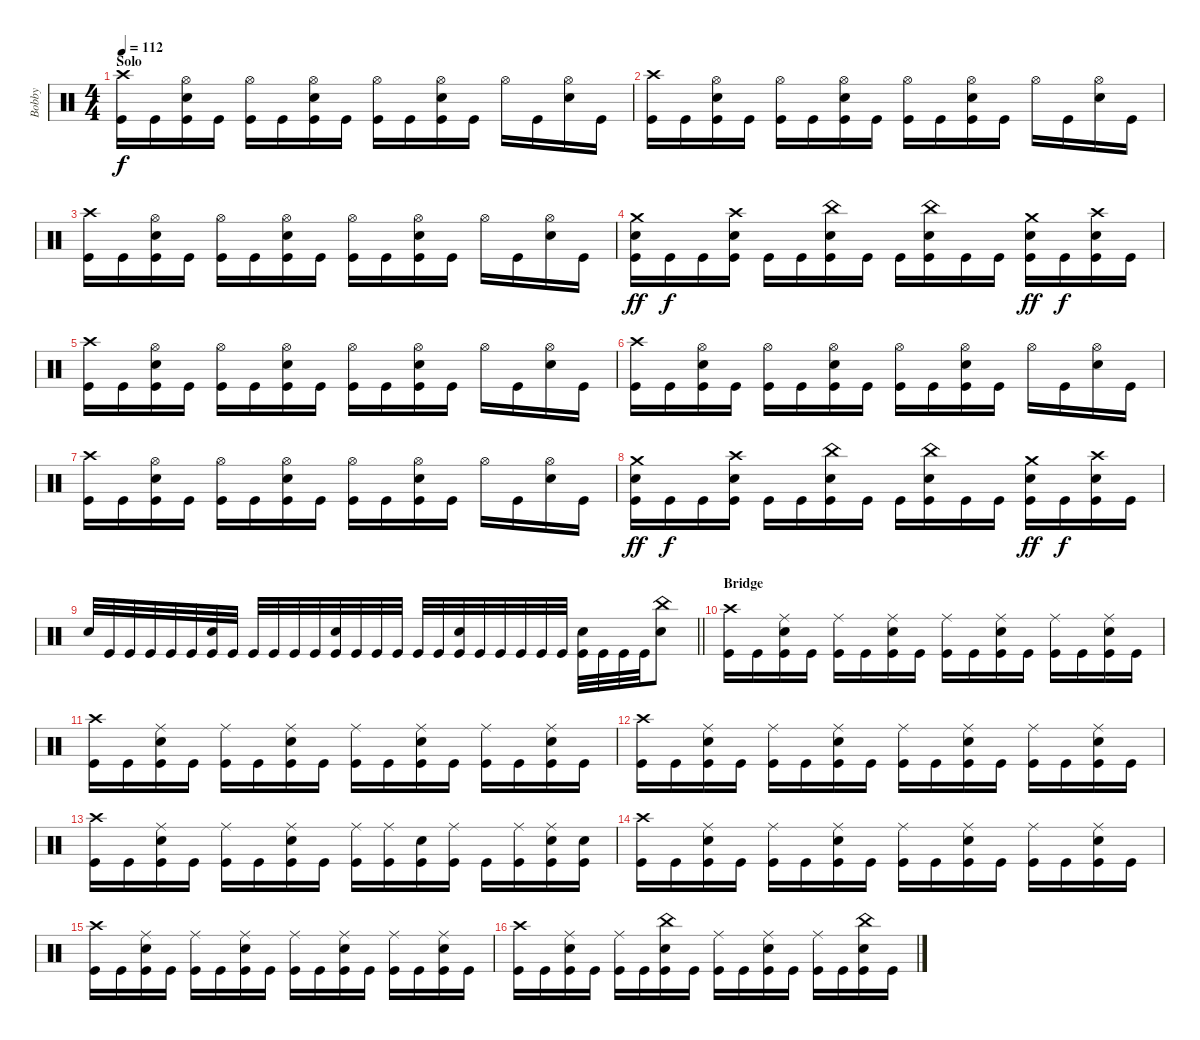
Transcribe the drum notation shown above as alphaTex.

\track ("Bobby" "Bobby") {instrument percussion}
\staff {score}
\articulation defaults
\ts (4 4)
\section ("" "Solo")
\tempo 112
\clef neutral
\ks c
("Crash high (hit)" "Kick (hit)").16{dy f} "Kick (hit)".16 ("Hi-Hat (open)" "Electric Snare (hit)" "Kick (hit)").16 "Kick (hit)".16 ("Hi-Hat (open)" "Kick (hit)").16 "Kick (hit)".16 ("Hi-Hat (open)" "Electric Snare (hit)" "Kick (hit)").16 "Kick (hit)".16 ("Hi-Hat (open)" "Kick (hit)").16 "Kick (hit)".16 ("Hi-Hat (open)" "Electric Snare (hit)" "Kick (hit)").16 "Kick (hit)".16 "Hi-Hat (open)".16 "Kick (hit)".16 ("Hi-Hat (open)" "Electric Snare (hit)").16 "Kick (hit)".16 |
("Crash high (hit)" "Kick (hit)").16 "Kick (hit)".16 ("Hi-Hat (open)" "Electric Snare (hit)" "Kick (hit)").16 "Kick (hit)".16 ("Hi-Hat (open)" "Kick (hit)").16 "Kick (hit)".16 ("Hi-Hat (open)" "Electric Snare (hit)" "Kick (hit)").16 "Kick (hit)".16 ("Hi-Hat (open)" "Kick (hit)").16 "Kick (hit)".16 ("Hi-Hat (open)" "Electric Snare (hit)" "Kick (hit)").16 "Kick (hit)".16 "Hi-Hat (open)".16 "Kick (hit)".16 ("Hi-Hat (open)" "Electric Snare (hit)").16 "Kick (hit)".16 |
("Crash high (hit)" "Kick (hit)").16 "Kick (hit)".16 ("Hi-Hat (open)" "Electric Snare (hit)" "Kick (hit)").16 "Kick (hit)".16 ("Hi-Hat (open)" "Kick (hit)").16 "Kick (hit)".16 ("Hi-Hat (open)" "Electric Snare (hit)" "Kick (hit)").16 "Kick (hit)".16 ("Hi-Hat (open)" "Kick (hit)").16 "Kick (hit)".16 ("Hi-Hat (open)" "Electric Snare (hit)" "Kick (hit)").16 "Kick (hit)".16 "Hi-Hat (open)".16 "Kick (hit)".16 ("Hi-Hat (open)" "Electric Snare (hit)").16 "Kick (hit)".16 |
("Crash medium (hit)" "Electric Snare (hit)" "Kick (hit)").16{dy ff} "Kick (hit)".16{dy f} "Kick (hit)".16 ("Crash high (hit)" "Electric Snare (hit)" "Kick (hit)").16 "Kick (hit)".16 "Kick (hit)".16 ("China (hit)" "Electric Snare (hit)" "Kick (hit)").16 "Kick (hit)".16 "Kick (hit)".16 ("China (hit)" "Electric Snare (hit)" "Kick (hit)").16 "Kick (hit)".16 "Kick (hit)".16 ("Crash medium (hit)" "Electric Snare (hit)" "Kick (hit)").16{dy ff} "Kick (hit)".16{dy f} ("Crash high (hit)" "Electric Snare (hit)" "Kick (hit)").16 "Kick (hit)".16 |
("Crash high (hit)" "Kick (hit)").16 "Kick (hit)".16 ("Hi-Hat (open)" "Electric Snare (hit)" "Kick (hit)").16 "Kick (hit)".16 ("Hi-Hat (open)" "Kick (hit)").16 "Kick (hit)".16 ("Hi-Hat (open)" "Electric Snare (hit)" "Kick (hit)").16 "Kick (hit)".16 ("Hi-Hat (open)" "Kick (hit)").16 "Kick (hit)".16 ("Hi-Hat (open)" "Electric Snare (hit)" "Kick (hit)").16 "Kick (hit)".16 "Hi-Hat (open)".16 "Kick (hit)".16 ("Hi-Hat (open)" "Electric Snare (hit)").16 "Kick (hit)".16 |
("Crash high (hit)" "Kick (hit)").16 "Kick (hit)".16 ("Hi-Hat (open)" "Electric Snare (hit)" "Kick (hit)").16 "Kick (hit)".16 ("Hi-Hat (open)" "Kick (hit)").16 "Kick (hit)".16 ("Hi-Hat (open)" "Electric Snare (hit)" "Kick (hit)").16 "Kick (hit)".16 ("Hi-Hat (open)" "Kick (hit)").16 "Kick (hit)".16 ("Hi-Hat (open)" "Electric Snare (hit)" "Kick (hit)").16 "Kick (hit)".16 "Hi-Hat (open)".16 "Kick (hit)".16 ("Hi-Hat (open)" "Electric Snare (hit)").16 "Kick (hit)".16 |
("Crash high (hit)" "Kick (hit)").16 "Kick (hit)".16 ("Hi-Hat (open)" "Electric Snare (hit)" "Kick (hit)").16 "Kick (hit)".16 ("Hi-Hat (open)" "Kick (hit)").16 "Kick (hit)".16 ("Hi-Hat (open)" "Electric Snare (hit)" "Kick (hit)").16 "Kick (hit)".16 ("Hi-Hat (open)" "Kick (hit)").16 "Kick (hit)".16 ("Hi-Hat (open)" "Electric Snare (hit)" "Kick (hit)").16 "Kick (hit)".16 "Hi-Hat (open)".16 "Kick (hit)".16 ("Hi-Hat (open)" "Electric Snare (hit)").16 "Kick (hit)".16 |
("Crash medium (hit)" "Electric Snare (hit)" "Kick (hit)").16{dy ff} "Kick (hit)".16{dy f} "Kick (hit)".16 ("Crash high (hit)" "Electric Snare (hit)" "Kick (hit)").16 "Kick (hit)".16 "Kick (hit)".16 ("China (hit)" "Electric Snare (hit)" "Kick (hit)").16 "Kick (hit)".16 "Kick (hit)".16 ("China (hit)" "Electric Snare (hit)" "Kick (hit)").16 "Kick (hit)".16 "Kick (hit)".16 ("Crash medium (hit)" "Electric Snare (hit)" "Kick (hit)").16{dy ff} "Kick (hit)".16{dy f} ("Crash high (hit)" "Electric Snare (hit)" "Kick (hit)").16 "Kick (hit)".16 |
\barLineRight lightlight "Electric Snare (hit)".32 "Kick (hit)".32 "Kick (hit)".32 "Kick (hit)".32 "Kick (hit)".32 "Kick (hit)".32
("Electric Snare (hit)" "Kick (hit)").32 "Kick (hit)".32 "Kick (hit)".32 "Kick (hit)".32 "Kick (hit)".32 "Kick (hit)".32 ("Electric Snare (hit)" "Kick (hit)").32 "Kick (hit)".32 "Kick (hit)".32 "Kick (hit)".32 "Kick (hit)".32 "Kick (hit)".32 ("Electric Snare (hit)" "Kick (hit)").32 "Kick (hit)".32 "Kick (hit)".32 "Kick (hit)".32 "Kick (hit)".32 "Kick (hit)".32 ("Electric Snare (hit)" "Kick (hit)").32 "Kick (hit)".32 "Kick (hit)".32 "Kick (hit)".32 ("China (hit)" "Electric Snare (hit)").8 |
\section ("" "Bridge")
("Crash high (hit)" "Kick (hit)").16 "Kick (hit)".16 ("Ride (middle)" "Electric Snare (hit)" "Kick (hit)").16 "Kick (hit)".16 ("Ride (middle)" "Kick (hit)").16 "Kick (hit)".16 ("Ride (middle)" "Electric Snare (hit)" "Kick (hit)").16 "Kick (hit)".16 ("Ride (middle)" "Kick (hit)").16 "Kick (hit)".16 ("Ride (middle)" "Electric Snare (hit)" "Kick (hit)").16 "Kick (hit)".16 ("Ride (middle)" "Kick (hit)").16 "Kick (hit)".16 ("Ride (middle)" "Electric Snare (hit)" "Kick (hit)").16 "Kick (hit)".16 |
("Crash high (hit)" "Kick (hit)").16 "Kick (hit)".16 ("Ride (middle)" "Electric Snare (hit)" "Kick (hit)").16 "Kick (hit)".16 ("Ride (middle)" "Kick (hit)").16 "Kick (hit)".16 ("Ride (middle)" "Electric Snare (hit)" "Kick (hit)").16 "Kick (hit)".16 ("Ride (middle)" "Kick (hit)").16 "Kick (hit)".16 ("Ride (middle)" "Electric Snare (hit)" "Kick (hit)").16 "Kick (hit)".16 ("Ride (middle)" "Kick (hit)").16 "Kick (hit)".16 ("Ride (middle)" "Electric Snare (hit)" "Kick (hit)").16 "Kick (hit)".16 |
("Crash high (hit)" "Kick (hit)").16 "Kick (hit)".16 ("Ride (middle)" "Electric Snare (hit)" "Kick (hit)").16 "Kick (hit)".16 ("Ride (middle)" "Kick (hit)").16 "Kick (hit)".16 ("Ride (middle)" "Electric Snare (hit)" "Kick (hit)").16 "Kick (hit)".16 ("Ride (middle)" "Kick (hit)").16 "Kick (hit)".16 ("Ride (middle)" "Electric Snare (hit)" "Kick (hit)").16 "Kick (hit)".16 ("Ride (middle)" "Kick (hit)").16 "Kick (hit)".16 ("Ride (middle)" "Electric Snare (hit)" "Kick (hit)").16 "Kick (hit)".16 |
("Crash high (hit)" "Kick (hit)").16 "Kick (hit)".16 ("Ride (middle)" "Electric Snare (hit)" "Kick (hit)").16 "Kick (hit)".16 ("Ride (middle)" "Kick (hit)").16 "Kick (hit)".16 ("Ride (middle)" "Electric Snare (hit)" "Kick (hit)").16 "Kick (hit)".16 ("Ride (middle)" "Kick (hit)").16 ("Ride (middle)" "Kick (hit)").16 ("Electric Snare (hit)" "Kick (hit)").16 ("Ride (middle)" "Kick (hit)").16 "Kick (hit)".16 ("Ride (middle)" "Kick (hit)").16 ("Ride (middle)" "Electric Snare (hit)" "Kick (hit)").16 ("Electric Snare (hit)" "Kick (hit)").16 |
("Crash high (hit)" "Kick (hit)").16 "Kick (hit)".16 ("Ride (middle)" "Electric Snare (hit)" "Kick (hit)").16 "Kick (hit)".16 ("Ride (middle)" "Kick (hit)").16 "Kick (hit)".16 ("Ride (middle)" "Electric Snare (hit)" "Kick (hit)").16 "Kick (hit)".16 ("Ride (middle)" "Kick (hit)").16 "Kick (hit)".16 ("Ride (middle)" "Electric Snare (hit)" "Kick (hit)").16 "Kick (hit)".16 ("Ride (middle)" "Kick (hit)").16 "Kick (hit)".16 ("Ride (middle)" "Electric Snare (hit)" "Kick (hit)").16 "Kick (hit)".16 |
("Crash high (hit)" "Kick (hit)").16 "Kick (hit)".16 ("Ride (middle)" "Electric Snare (hit)" "Kick (hit)").16 "Kick (hit)".16 ("Ride (middle)" "Kick (hit)").16 "Kick (hit)".16 ("Ride (middle)" "Electric Snare (hit)" "Kick (hit)").16 "Kick (hit)".16 ("Ride (middle)" "Kick (hit)").16 "Kick (hit)".16 ("Ride (middle)" "Electric Snare (hit)" "Kick (hit)").16 "Kick (hit)".16 ("Ride (middle)" "Kick (hit)").16 "Kick (hit)".16 ("Ride (middle)" "Electric Snare (hit)" "Kick (hit)").16 "Kick (hit)".16 |
("Crash high (hit)" "Kick (hit)").16 "Kick (hit)".16 ("Ride (middle)" "Electric Snare (hit)" "Kick (hit)").16 "Kick (hit)".16 ("Ride (middle)" "Kick (hit)").16 "Kick (hit)".16 ("China (hit)" "Electric Snare (hit)" "Kick (hit)").16 "Kick (hit)".16 ("Ride (middle)" "Kick (hit)").16 "Kick (hit)".16 ("Ride (middle)" "Electric Snare (hit)" "Kick (hit)").16 "Kick (hit)".16 ("Ride (middle)" "Kick (hit)").16 "Kick (hit)".16 ("China (hit)" "Electric Snare (hit)" "Kick (hit)").16 "Kick (hit)".16
